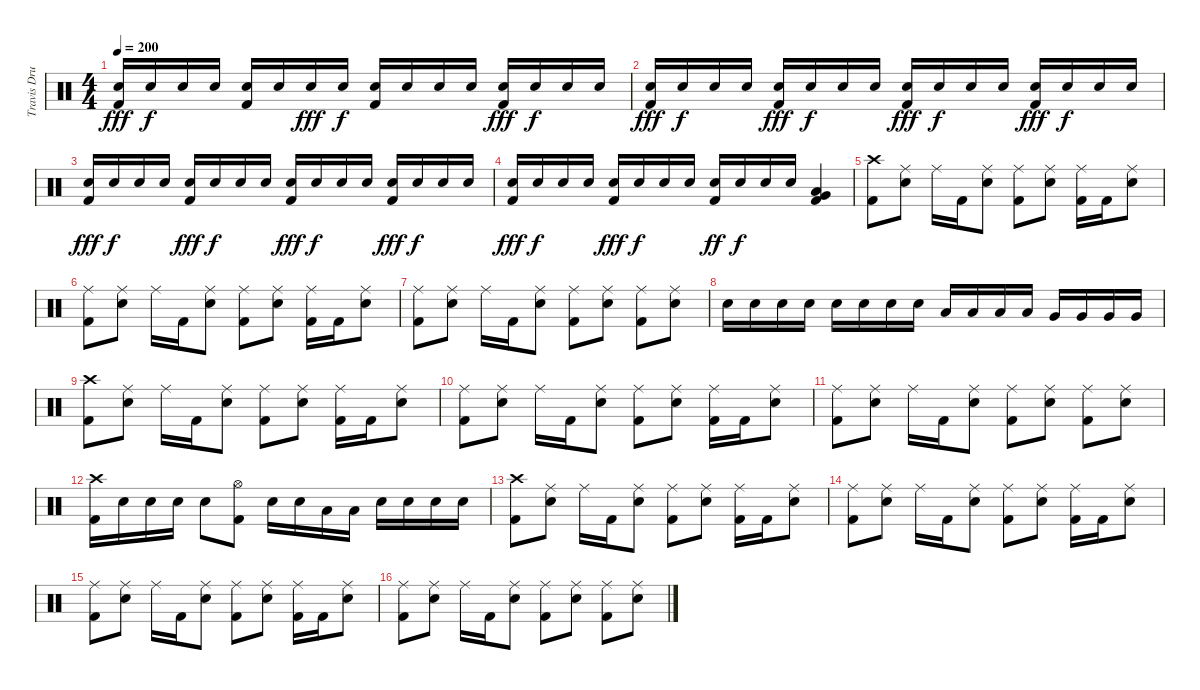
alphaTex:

\track ("Travis Drums" "Travis Dru") {instrument percussion}
\staff {score}
\articulation defaults
\ts (4 4)
\tempo 200
\clef neutral
\ks c
("Electric Snare (hit)" "Kick (hit) 2").16{dy fff} "Electric Snare (hit)".16{dy f} "Electric Snare (hit)".16 "Electric Snare (hit)".16 ("Electric Snare (hit)" "Kick (hit) 2").16 "Electric Snare (hit)".16 "Electric Snare (hit)".16{dy fff} "Electric Snare (hit)".16{dy f} ("Electric Snare (hit)" "Kick (hit) 2").16 "Electric Snare (hit)".16 "Electric Snare (hit)".16 "Electric Snare (hit)".16 ("Electric Snare (hit)" "Kick (hit) 2").16{dy fff} "Electric Snare (hit)".16{dy f} "Electric Snare (hit)".16 "Electric Snare (hit)".16 |
("Electric Snare (hit)" "Kick (hit) 2").16{dy fff} "Electric Snare (hit)".16{dy f} "Electric Snare (hit)".16 "Electric Snare (hit)".16 ("Electric Snare (hit)" "Kick (hit) 2").16{dy fff} "Electric Snare (hit)".16{dy f} "Electric Snare (hit)".16 "Electric Snare (hit)".16 ("Electric Snare (hit)" "Kick (hit) 2").16{dy fff} "Electric Snare (hit)".16{dy f} "Electric Snare (hit)".16 "Electric Snare (hit)".16 ("Electric Snare (hit)" "Kick (hit) 2").16{dy fff} "Electric Snare (hit)".16{dy f} "Electric Snare (hit)".16 "Electric Snare (hit)".16 |
("Electric Snare (hit)" "Kick (hit) 2").16{dy fff} "Electric Snare (hit)".16{dy f} "Electric Snare (hit)".16 "Electric Snare (hit)".16 ("Electric Snare (hit)" "Kick (hit) 2").16{dy fff} "Electric Snare (hit)".16{dy f} "Electric Snare (hit)".16 "Electric Snare (hit)".16 ("Electric Snare (hit)" "Kick (hit) 2").16{dy fff} "Electric Snare (hit)".16{dy f} "Electric Snare (hit)".16 "Electric Snare (hit)".16 ("Electric Snare (hit)" "Kick (hit) 2").16{dy fff} "Electric Snare (hit)".16{dy f} "Electric Snare (hit)".16 "Electric Snare (hit)".16 |
("Electric Snare (hit)" "Kick (hit) 2").16{dy fff} "Electric Snare (hit)".16{dy f} "Electric Snare (hit)".16 "Electric Snare (hit)".16 ("Electric Snare (hit)" "Kick (hit) 2").16{dy fff} "Electric Snare (hit)".16{dy f} "Electric Snare (hit)".16 "Electric Snare (hit)".16 ("Electric Snare (hit)" "Kick (hit) 2").16{dy ff} "Electric Snare (hit)".16{dy f} "Electric Snare (hit)".16 "Electric Snare (hit)".16 ("Low Tom (hit)" "Very Low Tom (hit)" "Kick (hit) 2").4 |
("Crash high (hit)" "Kick (hit) 2").8 ("Ride (middle)" "Electric Snare (hit)").8 "Ride (middle)".16 "Kick (hit) 2".16 ("Ride (middle)" "Electric Snare (hit)").8 ("Ride (middle)" "Kick (hit) 2").8 ("Ride (middle)" "Electric Snare (hit)").8 ("Ride (middle)" "Kick (hit) 2").16 "Kick (hit) 2".16 ("Ride (middle)" "Electric Snare (hit)").8 |
("Ride (middle)" "Kick (hit) 2").8 ("Ride (middle)" "Electric Snare (hit)").8 "Ride (middle)".16 "Kick (hit) 2".16 ("Ride (middle)" "Electric Snare (hit)").8 ("Ride (middle)" "Kick (hit) 2").8 ("Ride (middle)" "Electric Snare (hit)").8 ("Ride (middle)" "Kick (hit) 2").16 "Kick (hit) 2".16 ("Ride (middle)" "Electric Snare (hit)").8 |
("Ride (middle)" "Kick (hit) 2").8 ("Ride (middle)" "Electric Snare (hit)").8 "Ride (middle)".16 "Kick (hit) 2".16 ("Ride (middle)" "Electric Snare (hit)").8 ("Ride (middle)" "Kick (hit) 2").8 ("Ride (middle)" "Electric Snare (hit)").8 ("Ride (middle)" "Kick (hit) 2").8 ("Ride (middle)" "Electric Snare (hit)").8 |
"Electric Snare (hit)".16 "Electric Snare (hit)".16 "Electric Snare (hit)".16 "Electric Snare (hit)".16 "Electric Snare (hit)".16 "Electric Snare (hit)".16 "Electric Snare (hit)".16 "Electric Snare (hit)".16 "Low Tom (hit)".16 "Low Tom (hit)".16 "Low Tom (hit)".16 "Low Tom (hit)".16 "Very Low Tom (hit)".16 "Very Low Tom (hit)".16 "Very Low Tom (hit)".16 "Very Low Tom (hit)".16 |
("Crash high (hit)" "Kick (hit) 2").8 ("Ride (middle)" "Electric Snare (hit)").8 "Ride (middle)".16 "Kick (hit) 2".16 ("Ride (middle)" "Electric Snare (hit)").8 ("Ride (middle)" "Kick (hit) 2").8 ("Ride (middle)" "Electric Snare (hit)").8 ("Ride (middle)" "Kick (hit) 2").16 "Kick (hit) 2".16 ("Ride (middle)" "Electric Snare (hit)").8 |
("Ride (middle)" "Kick (hit) 2").8 ("Ride (middle)" "Electric Snare (hit)").8 "Ride (middle)".16 "Kick (hit) 2".16 ("Ride (middle)" "Electric Snare (hit)").8 ("Ride (middle)" "Kick (hit) 2").8 ("Ride (middle)" "Electric Snare (hit)").8 ("Ride (middle)" "Kick (hit) 2").16 "Kick (hit) 2".16 ("Ride (middle)" "Electric Snare (hit)").8 |
("Ride (middle)" "Kick (hit) 2").8 ("Ride (middle)" "Electric Snare (hit)").8 "Ride (middle)".16 "Kick (hit) 2".16 ("Ride (middle)" "Electric Snare (hit)").8 ("Ride (middle)" "Kick (hit) 2").8 ("Ride (middle)" "Electric Snare (hit)").8 ("Ride (middle)" "Kick (hit) 2").8 ("Ride (middle)" "Electric Snare (hit)").8 |
("Crash high (hit)" "Kick (hit) 2").16 "Electric Snare (hit)".16 "Electric Snare (hit)".16 "Electric Snare (hit)".16 "Electric Snare (hit)".8 ("Hi-Hat (open)" "Kick (hit) 2").8 "Electric Snare (hit)".16 "Electric Snare (hit)".16 "Low Tom (hit)".16 "Low Tom (hit)".16 "Electric Snare (hit)".16 "Electric Snare (hit)".16 "Electric Snare (hit)".16 "Electric Snare (hit)".16 |
("Crash high (hit)" "Kick (hit) 2").8 ("Ride (middle)" "Electric Snare (hit)").8 "Ride (middle)".16 "Kick (hit) 2".16 ("Ride (middle)" "Electric Snare (hit)").8 ("Ride (middle)" "Kick (hit) 2").8 ("Ride (middle)" "Electric Snare (hit)").8 ("Ride (middle)" "Kick (hit) 2").16 "Kick (hit) 2".16 ("Ride (middle)" "Electric Snare (hit)").8 |
("Ride (middle)" "Kick (hit) 2").8 ("Ride (middle)" "Electric Snare (hit)").8 "Ride (middle)".16 "Kick (hit) 2".16 ("Ride (middle)" "Electric Snare (hit)").8 ("Ride (middle)" "Kick (hit) 2").8 ("Ride (middle)" "Electric Snare (hit)").8 ("Ride (middle)" "Kick (hit) 2").16 "Kick (hit) 2".16 ("Ride (middle)" "Electric Snare (hit)").8 |
("Ride (middle)" "Kick (hit) 2").8 ("Ride (middle)" "Electric Snare (hit)").8 "Ride (middle)".16 "Kick (hit) 2".16 ("Ride (middle)" "Electric Snare (hit)").8 ("Ride (middle)" "Kick (hit) 2").8 ("Ride (middle)" "Electric Snare (hit)").8 ("Ride (middle)" "Kick (hit) 2").16 "Kick (hit) 2".16 ("Ride (middle)" "Electric Snare (hit)").8 |
("Ride (middle)" "Kick (hit) 2").8 ("Ride (middle)" "Electric Snare (hit)").8 "Ride (middle)".16 "Kick (hit) 2".16 ("Ride (middle)" "Electric Snare (hit)").8 ("Ride (middle)" "Kick (hit) 2").8 ("Ride (middle)" "Electric Snare (hit)").8 ("Ride (middle)" "Kick (hit) 2").8 ("Ride (middle)" "Electric Snare (hit)").8
